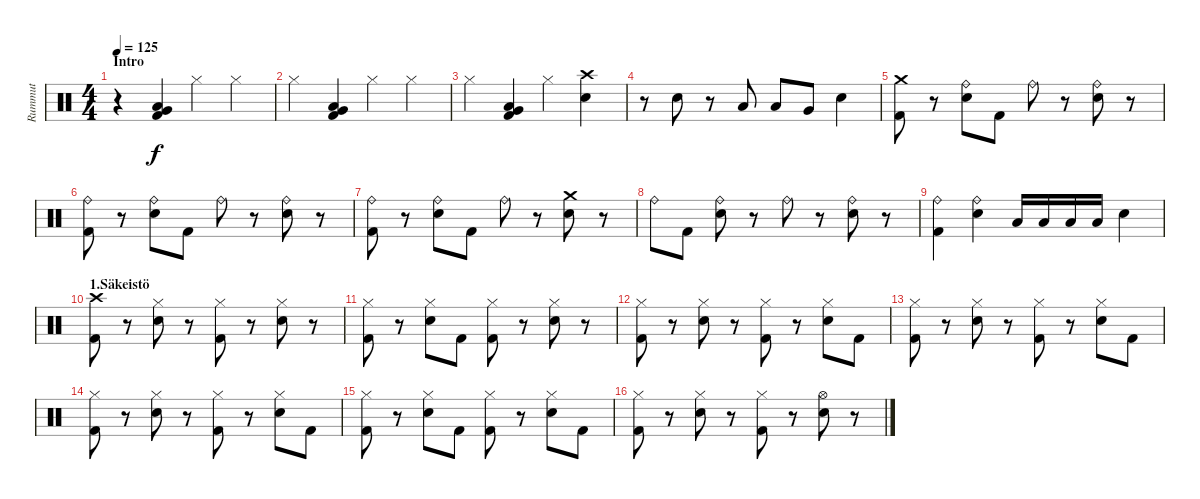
\track ("Rummut" "Rummut") {instrument percussion}
\staff {score}
\articulation defaults
\ts (4 4)
\section ("" "Intro")
\tempo 125
\clef neutral
\ks c
r.4{dy f} ("Very Low Tom (hit)" "Low Tom (hit)" "Kick (hit) 2").4 "Hi-Hat (closed)".4 "Hi-Hat (closed)".4 |
"Hi-Hat (closed)".4 ("Very Low Tom (hit)" "Low Tom (hit)" "Kick (hit) 2").4 "Hi-Hat (closed)".4 "Hi-Hat (closed)".4 |
"Hi-Hat (closed)".4 ("Very Low Tom (hit)" "Low Tom (hit)" "Kick (hit) 2").4 "Hi-Hat (closed)".4 ("Crash high (hit)" "Snare (hit) 2").4 |
r.8 "Snare (hit) 2".8 r.8 "Low Tom (hit)".8 "Low Tom (hit)".8 "Very Low Tom (hit)".8 "Snare (hit) 2".4 |
("Crash medium (hit)" "Kick (hit) 2").8 r.8 ("Ride (bell)" "Snare (hit) 2").8 "Kick (hit) 2".8 "Ride (bell)".8 r.8 ("Ride (bell)" "Snare (hit) 2").8 r.8 |
("Ride (bell)" "Kick (hit) 2").8 r.8 ("Ride (bell)" "Snare (hit) 2").8 "Kick (hit) 2".8 "Ride (bell)".8 r.8 ("Ride (bell)" "Snare (hit) 2").8 r.8 |
("Ride (bell)" "Kick (hit) 2").8 r.8 ("Ride (bell)" "Snare (hit) 2").8 "Kick (hit) 2".8 "Ride (bell)".8 r.8 ("Crash medium (hit)" "Snare (hit) 2").8 r.8 |
"Ride (bell)".8 "Kick (hit) 2".8 ("Ride (bell)" "Snare (hit) 2").8 r.8 "Ride (bell)".8 r.8 ("Ride (bell)" "Snare (hit) 2").8 r.8 |
("Ride (bell)" "Kick (hit) 2").4 ("Ride (bell)" "Snare (hit) 2").4 "Low Tom (hit)".16 "Low Tom (hit)".16 "Low Tom (hit)".16 "Low Tom (hit)".16 "Snare (hit) 2".4 |
\section ("" "1.Säkeistö")
("Crash high (hit)" "Kick (hit) 2").8 r.8 ("Hi-Hat (closed)" "Snare (hit) 2").8 r.8 ("Hi-Hat (closed)" "Kick (hit) 2").8 r.8 ("Hi-Hat (closed)" "Snare (hit) 2").8 r.8 |
("Hi-Hat (closed)" "Kick (hit) 2").8 r.8 ("Hi-Hat (closed)" "Snare (hit) 2").8 "Kick (hit) 2".8 ("Hi-Hat (closed)" "Kick (hit) 2").8 r.8 ("Hi-Hat (closed)" "Snare (hit) 2").8 r.8 |
("Hi-Hat (closed)" "Kick (hit) 2").8 r.8 ("Hi-Hat (closed)" "Snare (hit) 2").8 r.8 ("Hi-Hat (closed)" "Kick (hit) 2").8 r.8 ("Hi-Hat (closed)" "Snare (hit) 2").8 "Kick (hit) 2".8 |
("Hi-Hat (closed)" "Kick (hit) 2").8 r.8 ("Hi-Hat (closed)" "Snare (hit) 2").8 r.8 ("Hi-Hat (closed)" "Kick (hit) 2").8 r.8 ("Hi-Hat (closed)" "Snare (hit) 2").8 "Kick (hit) 2".8 |
("Hi-Hat (closed)" "Kick (hit) 2").8 r.8 ("Hi-Hat (closed)" "Snare (hit) 2").8 r.8 ("Hi-Hat (closed)" "Kick (hit) 2").8 r.8 ("Hi-Hat (closed)" "Snare (hit) 2").8 "Kick (hit) 2".8 |
("Hi-Hat (closed)" "Kick (hit) 2").8 r.8 ("Hi-Hat (closed)" "Snare (hit) 2").8 "Kick (hit) 2".8 ("Hi-Hat (closed)" "Kick (hit) 2").8 r.8 ("Hi-Hat (closed)" "Snare (hit) 2").8 "Kick (hit) 2".8 |
("Hi-Hat (closed)" "Kick (hit) 2").8 r.8 ("Hi-Hat (closed)" "Snare (hit) 2").8 r.8 ("Hi-Hat (closed)" "Kick (hit) 2").8 r.8 ("Hi-Hat (open)" "Snare (hit) 2").8 r.8
